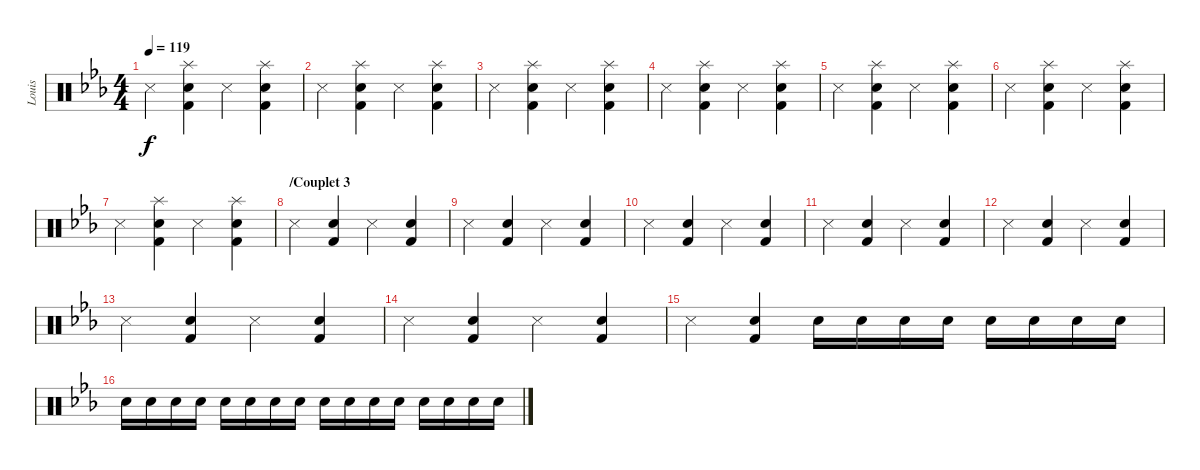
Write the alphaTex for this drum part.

\track ("Louis" "Louis") {instrument percussion}
\staff {score}
\articulation defaults
\ts (4 4)
\tempo 119
\clef neutral
\ks cminor "Metronome (hit)".4{dy f}
("Splash (hit)" "Kick (hit) 2" "Snare (hit) 2").4 "Metronome (hit)".4 ("Splash (hit)" "Kick (hit) 2" "Snare (hit) 2").4 |
"Metronome (hit)".4 ("Splash (hit)" "Kick (hit) 2" "Snare (hit) 2").4 "Metronome (hit)".4 ("Splash (hit)" "Kick (hit) 2" "Snare (hit) 2").4 |
"Metronome (hit)".4 ("Splash (hit)" "Kick (hit) 2" "Snare (hit) 2").4 "Metronome (hit)".4 ("Splash (hit)" "Kick (hit) 2" "Snare (hit) 2").4 |
"Metronome (hit)".4 ("Splash (hit)" "Kick (hit) 2" "Snare (hit) 2").4 "Metronome (hit)".4 ("Splash (hit)" "Kick (hit) 2" "Snare (hit) 2").4 |
"Metronome (hit)".4 ("Splash (hit)" "Kick (hit) 2" "Snare (hit) 2").4 "Metronome (hit)".4 ("Splash (hit)" "Kick (hit) 2" "Snare (hit) 2").4 |
"Metronome (hit)".4 ("Splash (hit)" "Kick (hit) 2" "Snare (hit) 2").4 "Metronome (hit)".4 ("Splash (hit)" "Kick (hit) 2" "Snare (hit) 2").4 |
"Metronome (hit)".4 ("Splash (hit)" "Kick (hit) 2" "Snare (hit) 2").4 "Metronome (hit)".4 ("Splash (hit)" "Kick (hit) 2" "Snare (hit) 2").4 |
\section ("" "/Couplet 3")
"Metronome (hit)".4 ("Kick (hit) 2" "Snare (hit) 2").4 "Metronome (hit)".4 ("Kick (hit) 2" "Snare (hit) 2").4 |
"Metronome (hit)".4 ("Kick (hit) 2" "Snare (hit) 2").4 "Metronome (hit)".4 ("Kick (hit) 2" "Snare (hit) 2").4 |
"Metronome (hit)".4 ("Kick (hit) 2" "Snare (hit) 2").4 "Metronome (hit)".4 ("Kick (hit) 2" "Snare (hit) 2").4 |
"Metronome (hit)".4 ("Kick (hit) 2" "Snare (hit) 2").4 "Metronome (hit)".4 ("Kick (hit) 2" "Snare (hit) 2").4 |
"Metronome (hit)".4 ("Kick (hit) 2" "Snare (hit) 2").4 "Metronome (hit)".4 ("Kick (hit) 2" "Snare (hit) 2").4 |
"Metronome (hit)".4 ("Kick (hit) 2" "Snare (hit) 2").4 "Metronome (hit)".4 ("Kick (hit) 2" "Snare (hit) 2").4 |
"Metronome (hit)".4 ("Kick (hit) 2" "Snare (hit) 2").4 "Metronome (hit)".4 ("Kick (hit) 2" "Snare (hit) 2").4 |
"Metronome (hit)".4 ("Kick (hit) 2" "Snare (hit) 2").4 "Snare (hit) 2".16 "Snare (hit) 2".16 "Snare (hit) 2".16 "Snare (hit) 2".16 "Snare (hit) 2".16 "Snare (hit) 2".16 "Snare (hit) 2".16 "Snare (hit) 2".16 |
"Snare (hit) 2".16 "Snare (hit) 2".16 "Snare (hit) 2".16 "Snare (hit) 2".16 "Snare (hit) 2".16 "Snare (hit) 2".16 "Snare (hit) 2".16 "Snare (hit) 2".16 "Snare (hit) 2".16 "Snare (hit) 2".16 "Snare (hit) 2".16 "Snare (hit) 2".16 "Snare (hit) 2".16 "Snare (hit) 2".16 "Snare (hit) 2".16 "Snare (hit) 2".16
